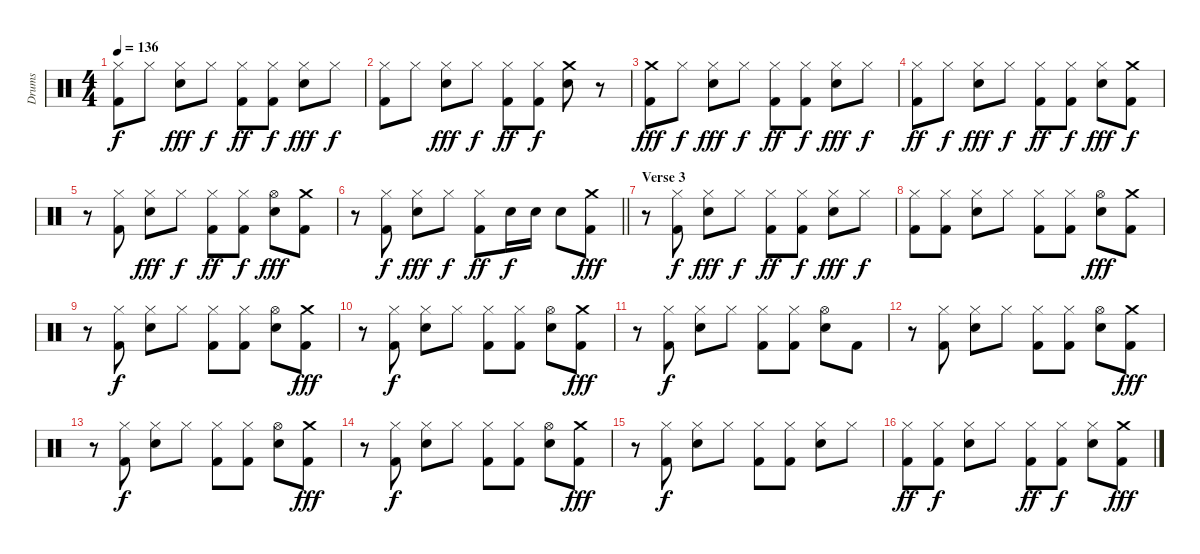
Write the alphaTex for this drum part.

\track ("Drums" "Drums") {instrument percussion}
\staff {score}
\articulation defaults
\ts (4 4)
\tempo 136
\clef neutral
\ks c
("Hi-Hat (closed)" "Kick (hit) 2").8{dy f} "Hi-Hat (closed)".8 ("Hi-Hat (closed)" "Snare (hit) 2").8{dy fff} "Hi-Hat (closed)".8{dy f} ("Hi-Hat (closed)" "Kick (hit) 2").8{dy ff} ("Hi-Hat (closed)" "Kick (hit) 2").8{dy f} ("Hi-Hat (closed)" "Snare (hit) 2").8{dy fff} "Hi-Hat (closed)".8{dy f} |
("Hi-Hat (closed)" "Kick (hit) 2").8 "Hi-Hat (closed)".8 ("Hi-Hat (closed)" "Snare (hit) 2").8{dy fff} "Hi-Hat (closed)".8{dy f} ("Hi-Hat (closed)" "Kick (hit) 2").8{dy ff} ("Hi-Hat (closed)" "Kick (hit) 2").8{dy f} ("Crash medium (hit)" "Snare (hit) 2").8 r.8 |
("Crash medium (hit)" "Kick (hit) 2").8{dy fff} "Hi-Hat (closed)".8{dy f} ("Hi-Hat (closed)" "Snare (hit) 2").8{dy fff} "Hi-Hat (closed)".8{dy f} ("Hi-Hat (closed)" "Kick (hit) 2").8{dy ff} ("Hi-Hat (closed)" "Kick (hit) 2").8{dy f} ("Hi-Hat (closed)" "Snare (hit) 2").8{dy fff} "Hi-Hat (closed)".8{dy f} |
("Hi-Hat (closed)" "Kick (hit) 2").8{dy ff} "Hi-Hat (closed)".8{dy f} ("Hi-Hat (closed)" "Snare (hit) 2").8{dy fff} "Hi-Hat (closed)".8{dy f} ("Hi-Hat (closed)" "Kick (hit) 2").8{dy ff} ("Hi-Hat (closed)" "Kick (hit) 2").8{dy f} ("Hi-Hat (closed)" "Snare (hit) 2").8{dy fff} ("Crash medium (hit)" "Kick (hit) 2").8{dy f} |
r.8 ("Hi-Hat (closed)" "Kick (hit) 2").8 ("Hi-Hat (closed)" "Snare (hit) 2").8{dy fff} "Hi-Hat (closed)".8{dy f} ("Hi-Hat (closed)" "Kick (hit) 2").8{dy ff} ("Hi-Hat (closed)" "Kick (hit) 2").8{dy f} ("Hi-Hat (open)" "Snare (hit) 2").8{dy fff} ("Crash medium (hit)" "Kick (hit) 2").8 |
\barLineRight lightlight
r.8 ("Hi-Hat (closed)" "Kick (hit) 2").8{dy f} ("Hi-Hat (closed)" "Snare (hit) 2").8{dy fff} "Hi-Hat (closed)".8{dy f} ("Hi-Hat (closed)" "Kick (hit) 2").8{dy ff} "Snare (hit) 2".16{dy f} "Snare (hit) 2".16 "Snare (hit) 2".8 ("Crash medium (hit)" "Kick (hit) 2").8{dy fff} |
\section ("" "Verse 3")
r.8 ("Hi-Hat (closed)" "Kick (hit) 2").8{dy f} ("Hi-Hat (closed)" "Snare (hit) 2").8{dy fff} "Hi-Hat (closed)".8{dy f} ("Hi-Hat (closed)" "Kick (hit) 2").8{dy ff} ("Hi-Hat (closed)" "Kick (hit) 2").8{dy f} ("Hi-Hat (closed)" "Snare (hit) 2").8{dy fff} "Hi-Hat (closed)".8{dy f} |
("Hi-Hat (closed)" "Kick (hit) 2").8 ("Hi-Hat (closed)" "Kick (hit) 2").8 ("Hi-Hat (closed)" "Snare (hit) 2").8 "Hi-Hat (closed)".8 ("Hi-Hat (closed)" "Kick (hit) 2").8 ("Hi-Hat (closed)" "Kick (hit) 2").8 ("Hi-Hat (open)" "Snare (hit) 2").8{dy fff} ("Crash medium (hit)" "Kick (hit) 2").8 |
r.8 ("Hi-Hat (closed)" "Kick (hit) 2").8{dy f} ("Hi-Hat (closed)" "Snare (hit) 2").8 "Hi-Hat (closed)".8 ("Hi-Hat (closed)" "Kick (hit) 2").8 ("Hi-Hat (closed)" "Kick (hit) 2").8 ("Hi-Hat (open)" "Snare (hit) 2").8 ("Crash medium (hit)" "Kick (hit) 2").8{dy fff} |
r.8 ("Hi-Hat (closed)" "Kick (hit) 2").8{dy f} ("Hi-Hat (closed)" "Snare (hit) 2").8 "Hi-Hat (closed)".8 ("Hi-Hat (closed)" "Kick (hit) 2").8 ("Hi-Hat (closed)" "Kick (hit) 2").8 ("Hi-Hat (open)" "Snare (hit) 2").8 ("Crash medium (hit)" "Kick (hit) 2").8{dy fff} |
r.8 ("Hi-Hat (closed)" "Kick (hit) 2").8{dy f} ("Hi-Hat (closed)" "Snare (hit) 2").8 "Hi-Hat (closed)".8 ("Hi-Hat (closed)" "Kick (hit) 2").8 ("Hi-Hat (closed)" "Kick (hit) 2").8 ("Hi-Hat (open)" "Snare (hit) 2").8 "Kick (hit) 2".8 |
r.8 ("Hi-Hat (closed)" "Kick (hit) 2").8 ("Hi-Hat (closed)" "Snare (hit) 2").8 "Hi-Hat (closed)".8 ("Hi-Hat (closed)" "Kick (hit) 2").8 ("Hi-Hat (closed)" "Kick (hit) 2").8 ("Hi-Hat (open)" "Snare (hit) 2").8 ("Crash medium (hit)" "Kick (hit) 2").8{dy fff} |
r.8 ("Hi-Hat (closed)" "Kick (hit) 2").8{dy f} ("Hi-Hat (closed)" "Snare (hit) 2").8 "Hi-Hat (closed)".8 ("Hi-Hat (closed)" "Kick (hit) 2").8 ("Hi-Hat (closed)" "Kick (hit) 2").8 ("Hi-Hat (open)" "Snare (hit) 2").8 ("Crash medium (hit)" "Kick (hit) 2").8{dy fff} |
r.8 ("Hi-Hat (closed)" "Kick (hit) 2").8{dy f} ("Hi-Hat (closed)" "Snare (hit) 2").8 "Hi-Hat (closed)".8 ("Hi-Hat (closed)" "Kick (hit) 2").8 ("Hi-Hat (closed)" "Kick (hit) 2").8 ("Hi-Hat (open)" "Snare (hit) 2").8 ("Crash medium (hit)" "Kick (hit) 2").8{dy fff} |
r.8 ("Hi-Hat (closed)" "Kick (hit) 2").8{dy f} ("Hi-Hat (closed)" "Snare (hit) 2").8 "Hi-Hat (closed)".8 ("Hi-Hat (closed)" "Kick (hit) 2").8 ("Hi-Hat (closed)" "Kick (hit) 2").8 ("Hi-Hat (closed)" "Snare (hit) 2").8 "Hi-Hat (closed)".8 |
("Hi-Hat (closed)" "Kick (hit) 2").8{dy ff} ("Hi-Hat (closed)" "Kick (hit) 2").8{dy f} ("Hi-Hat (closed)" "Snare (hit) 2").8 "Hi-Hat (closed)".8 ("Hi-Hat (closed)" "Kick (hit) 2").8{dy ff} ("Hi-Hat (closed)" "Kick (hit) 2").8{dy f} ("Hi-Hat (closed)" "Snare (hit) 2").8 ("Crash medium (hit)" "Kick (hit) 2").8{dy fff}
